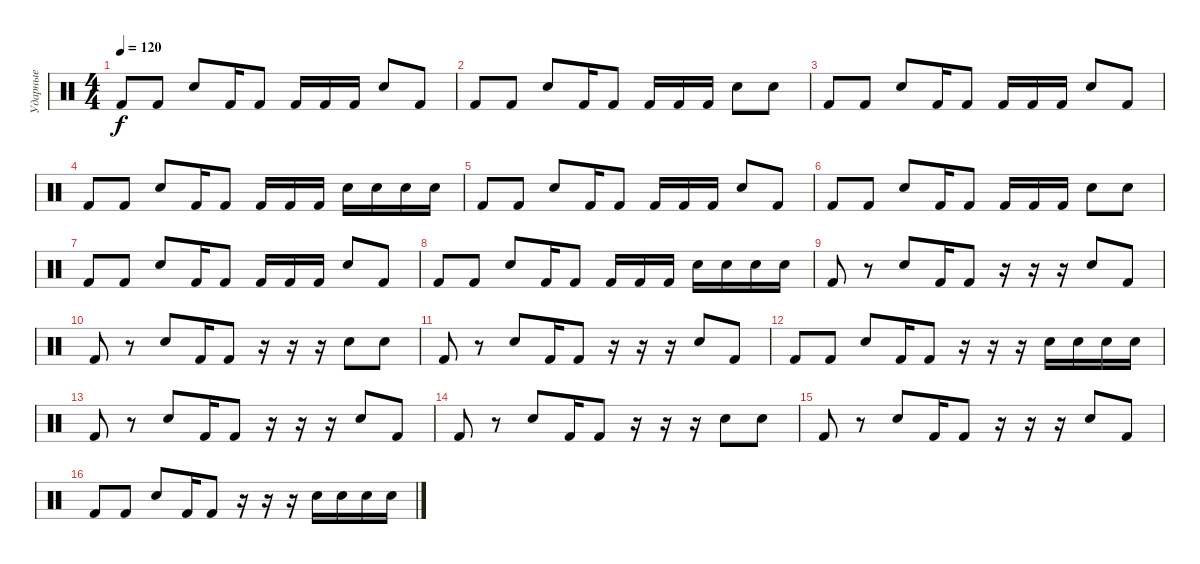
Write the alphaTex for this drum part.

\track ("Ударные" "Ударные") {instrument percussion}
\staff {score}
\articulation defaults
\ts (4 4)
\tempo 120
\clef neutral
\ks c "Kick (hit) 2".8{dy f} "Kick (hit) 2".8 "Electric Snare (hit)".8 "Kick (hit) 2".16 "Kick (hit) 2".8 "Kick (hit) 2".16 "Kick (hit) 2".16 "Kick (hit) 2".16 "Electric Snare (hit)".8 "Kick (hit) 2".8
|
"Kick (hit) 2".8 "Kick (hit) 2".8 "Electric Snare (hit)".8 "Kick (hit) 2".16 "Kick (hit) 2".8 "Kick (hit) 2".16 "Kick (hit) 2".16 "Kick (hit) 2".16 "Electric Snare (hit)".8 "Electric Snare (hit)".8 |
"Kick (hit) 2".8 "Kick (hit) 2".8 "Electric Snare (hit)".8 "Kick (hit) 2".16 "Kick (hit) 2".8 "Kick (hit) 2".16 "Kick (hit) 2".16 "Kick (hit) 2".16 "Electric Snare (hit)".8 "Kick (hit) 2".8 |
"Kick (hit) 2".8 "Kick (hit) 2".8 "Electric Snare (hit)".8 "Kick (hit) 2".16 "Kick (hit) 2".8 "Kick (hit) 2".16 "Kick (hit) 2".16 "Kick (hit) 2".16 "Electric Snare (hit)".16 "Electric Snare (hit)".16 "Electric Snare (hit)".16 "Electric Snare (hit)".16 |
"Kick (hit) 2".8 "Kick (hit) 2".8 "Electric Snare (hit)".8 "Kick (hit) 2".16 "Kick (hit) 2".8 "Kick (hit) 2".16 "Kick (hit) 2".16 "Kick (hit) 2".16 "Electric Snare (hit)".8 "Kick (hit) 2".8 |
"Kick (hit) 2".8 "Kick (hit) 2".8 "Electric Snare (hit)".8 "Kick (hit) 2".16 "Kick (hit) 2".8 "Kick (hit) 2".16 "Kick (hit) 2".16 "Kick (hit) 2".16 "Electric Snare (hit)".8 "Electric Snare (hit)".8 |
"Kick (hit) 2".8 "Kick (hit) 2".8 "Electric Snare (hit)".8 "Kick (hit) 2".16 "Kick (hit) 2".8 "Kick (hit) 2".16 "Kick (hit) 2".16 "Kick (hit) 2".16 "Electric Snare (hit)".8 "Kick (hit) 2".8 |
"Kick (hit) 2".8 "Kick (hit) 2".8 "Electric Snare (hit)".8 "Kick (hit) 2".16 "Kick (hit) 2".8 "Kick (hit) 2".16 "Kick (hit) 2".16 "Kick (hit) 2".16 "Electric Snare (hit)".16 "Electric Snare (hit)".16 "Electric Snare (hit)".16 "Electric Snare (hit)".16 |
"Kick (hit) 2".8 r.8 "Electric Snare (hit)".8 "Kick (hit) 2".16 "Kick (hit) 2".8 r.16 r.16 r.16 "Electric Snare (hit)".8 "Kick (hit) 2".8 |
"Kick (hit) 2".8 r.8 "Electric Snare (hit)".8 "Kick (hit) 2".16 "Kick (hit) 2".8 r.16 r.16 r.16 "Electric Snare (hit)".8 "Electric Snare (hit)".8 |
"Kick (hit) 2".8 r.8 "Electric Snare (hit)".8 "Kick (hit) 2".16 "Kick (hit) 2".8 r.16 r.16 r.16 "Electric Snare (hit)".8 "Kick (hit) 2".8 |
"Kick (hit) 2".8 "Kick (hit) 2".8 "Electric Snare (hit)".8 "Kick (hit) 2".16 "Kick (hit) 2".8 r.16 r.16 r.16 "Electric Snare (hit)".16 "Electric Snare (hit)".16 "Electric Snare (hit)".16 "Electric Snare (hit)".16 |
"Kick (hit) 2".8 r.8 "Electric Snare (hit)".8 "Kick (hit) 2".16 "Kick (hit) 2".8 r.16 r.16 r.16 "Electric Snare (hit)".8 "Kick (hit) 2".8 |
"Kick (hit) 2".8 r.8 "Electric Snare (hit)".8 "Kick (hit) 2".16 "Kick (hit) 2".8 r.16 r.16 r.16 "Electric Snare (hit)".8 "Electric Snare (hit)".8 |
"Kick (hit) 2".8 r.8 "Electric Snare (hit)".8 "Kick (hit) 2".16 "Kick (hit) 2".8 r.16 r.16 r.16 "Electric Snare (hit)".8 "Kick (hit) 2".8 |
"Kick (hit) 2".8 "Kick (hit) 2".8 "Electric Snare (hit)".8 "Kick (hit) 2".16 "Kick (hit) 2".8 r.16 r.16 r.16 "Electric Snare (hit)".16 "Electric Snare (hit)".16 "Electric Snare (hit)".16 "Electric Snare (hit)".16
